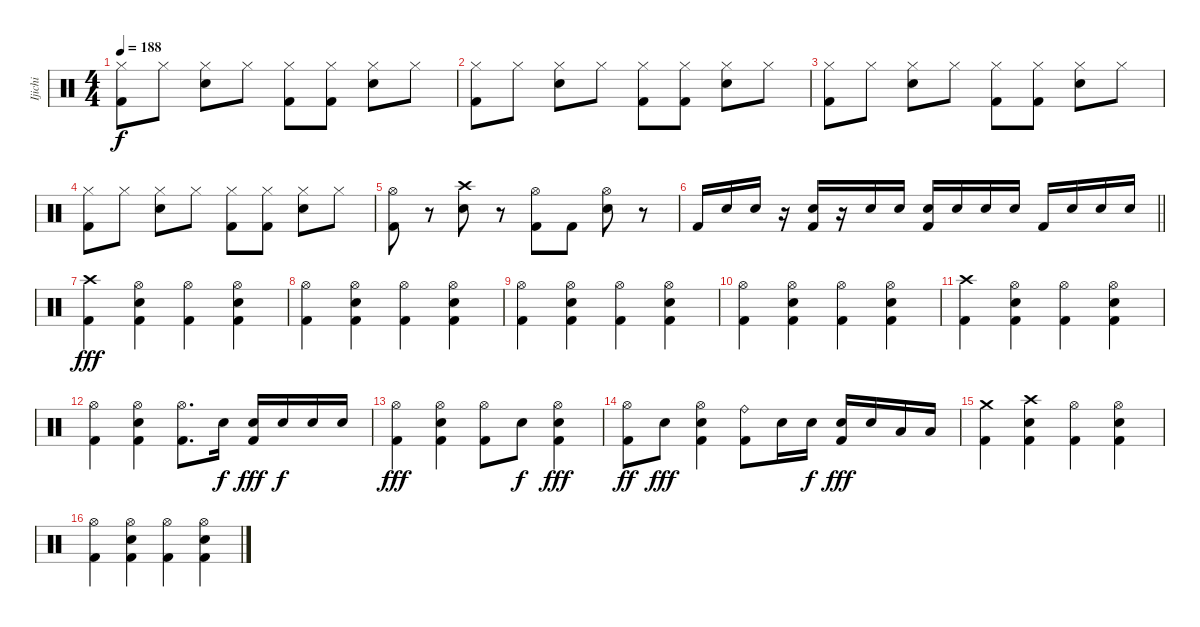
\track ("Ijichi" "Ijichi") {instrument percussion}
\staff {score}
\articulation defaults
\ts (4 4)
\tempo 188
\clef neutral
\ks c
("Hi-Hat (closed)" "Kick (hit) 2").8{dy f} "Hi-Hat (closed)".8 ("Hi-Hat (closed)" "Electric Snare (hit)").8 "Hi-Hat (closed)".8 ("Hi-Hat (closed)" "Kick (hit) 2").8 ("Hi-Hat (closed)" "Kick (hit) 2").8 ("Hi-Hat (closed)" "Electric Snare (hit)").8 "Hi-Hat (closed)".8 |
("Hi-Hat (closed)" "Kick (hit) 2").8 "Hi-Hat (closed)".8 ("Hi-Hat (closed)" "Electric Snare (hit)").8 "Hi-Hat (closed)".8 ("Hi-Hat (closed)" "Kick (hit) 2").8 ("Hi-Hat (closed)" "Kick (hit) 2").8 ("Hi-Hat (closed)" "Electric Snare (hit)").8 "Hi-Hat (closed)".8 |
("Hi-Hat (closed)" "Kick (hit) 2").8 "Hi-Hat (closed)".8 ("Hi-Hat (closed)" "Electric Snare (hit)").8 "Hi-Hat (closed)".8 ("Hi-Hat (closed)" "Kick (hit) 2").8 ("Hi-Hat (closed)" "Kick (hit) 2").8 ("Hi-Hat (closed)" "Electric Snare (hit)").8 "Hi-Hat (closed)".8 |
("Hi-Hat (closed)" "Kick (hit) 2").8 "Hi-Hat (closed)".8 ("Hi-Hat (closed)" "Electric Snare (hit)").8 "Hi-Hat (closed)".8 ("Hi-Hat (closed)" "Kick (hit) 2").8 ("Hi-Hat (closed)" "Kick (hit) 2").8 ("Hi-Hat (closed)" "Electric Snare (hit)").8 "Hi-Hat (closed)".8 |
("Hi-Hat (open)" "Kick (hit) 2").8 r.8 ("Crash high (hit)" "Electric Snare (hit)").8 r.8 ("Hi-Hat (open)" "Kick (hit) 2").8 "Kick (hit) 2".8 ("Hi-Hat (open)" "Electric Snare (hit)").8 r.8 |
\barLineRight lightlight "Kick (hit) 2".16 "Electric Snare (hit)".16 "Electric Snare (hit)".16
r.16 ("Electric Snare (hit)" "Kick (hit) 2").16 r.16 "Electric Snare (hit)".16 "Electric Snare (hit)".16 ("Electric Snare (hit)" "Kick (hit) 2").16 "Electric Snare (hit)".16 "Electric Snare (hit)".16 "Electric Snare (hit)".16 "Kick (hit) 2".16 "Electric Snare (hit)".16 "Electric Snare (hit)".16 "Electric Snare (hit)".16 |
("Crash high (hit)" "Kick (hit) 2").4{dy fff} ("Hi-Hat (open)" "Electric Snare (hit)" "Kick (hit) 2").4 ("Hi-Hat (open)" "Kick (hit) 2").4 ("Hi-Hat (open)" "Electric Snare (hit)" "Kick (hit) 2").4 |
("Hi-Hat (open)" "Kick (hit) 2").4 ("Hi-Hat (open)" "Electric Snare (hit)" "Kick (hit) 2").4 ("Hi-Hat (open)" "Kick (hit) 2").4 ("Hi-Hat (open)" "Electric Snare (hit)" "Kick (hit) 2").4 |
("Hi-Hat (open)" "Kick (hit) 2").4 ("Hi-Hat (open)" "Electric Snare (hit)" "Kick (hit) 2").4 ("Hi-Hat (open)" "Kick (hit) 2").4 ("Hi-Hat (open)" "Electric Snare (hit)" "Kick (hit) 2").4 |
("Hi-Hat (open)" "Kick (hit) 2").4 ("Hi-Hat (open)" "Electric Snare (hit)" "Kick (hit) 2").4 ("Hi-Hat (open)" "Kick (hit) 2").4 ("Hi-Hat (open)" "Electric Snare (hit)" "Kick (hit) 2").4 |
("Crash high (hit)" "Kick (hit) 2").4 ("Hi-Hat (open)" "Electric Snare (hit)" "Kick (hit) 2").4 ("Hi-Hat (open)" "Kick (hit) 2").4 ("Hi-Hat (open)" "Electric Snare (hit)" "Kick (hit) 2").4 |
("Hi-Hat (open)" "Kick (hit) 2").4 ("Hi-Hat (open)" "Electric Snare (hit)" "Kick (hit) 2").4 ("Hi-Hat (open)" "Kick (hit) 2").8{d} "Electric Snare (hit)".16{dy f} ("Electric Snare (hit)" "Kick (hit) 2").16{dy fff} "Electric Snare (hit)".16{dy f} "Electric Snare (hit)".16 "Electric Snare (hit)".16 |
("Hi-Hat (open)" "Kick (hit) 2").4{dy fff} ("Hi-Hat (open)" "Electric Snare (hit)" "Kick (hit) 2").4 ("Hi-Hat (open)" "Kick (hit) 2").8 "Electric Snare (hit)".8{dy f} ("Hi-Hat (open)" "Electric Snare (hit)" "Kick (hit) 2").4{dy fff} |
("Hi-Hat (open)" "Kick (hit) 2").8{dy ff} "Electric Snare (hit)".8{dy fff} ("Hi-Hat (open)" "Electric Snare (hit)" "Kick (hit) 2").4 ("Ride (bell)" "Kick (hit) 2").8 "Electric Snare (hit)".16 "Electric Snare (hit)".16{dy f} ("Electric Snare (hit)" "Kick (hit) 2").16{dy fff} "Electric Snare (hit)".16 "Low Tom (hit)".16 "Low Tom (hit)".16 |
("Crash medium (hit)" "Kick (hit) 2").4 ("Crash high (hit)" "Electric Snare (hit)" "Kick (hit) 2").4 ("Hi-Hat (open)" "Kick (hit) 2").4 ("Hi-Hat (open)" "Electric Snare (hit)" "Kick (hit) 2").4 |
("Hi-Hat (open)" "Kick (hit) 2").4 ("Hi-Hat (open)" "Electric Snare (hit)" "Kick (hit) 2").4 ("Hi-Hat (open)" "Kick (hit) 2").4 ("Hi-Hat (open)" "Electric Snare (hit)" "Kick (hit) 2").4
